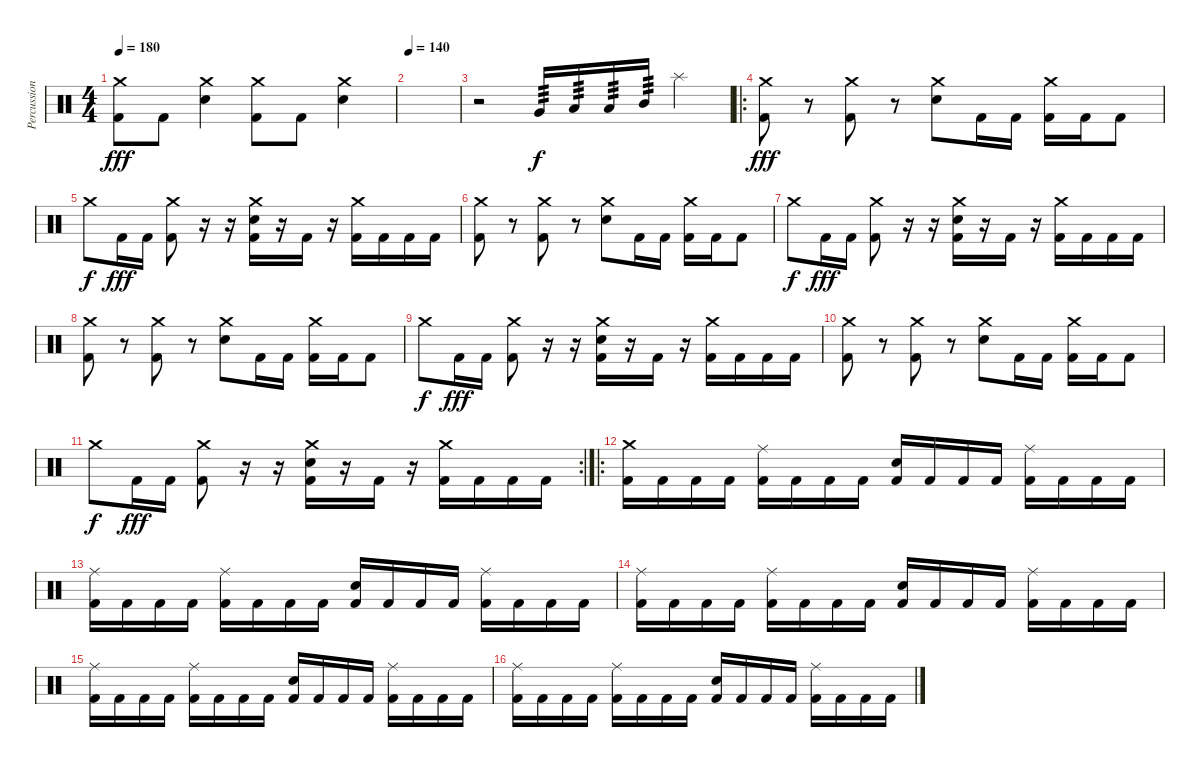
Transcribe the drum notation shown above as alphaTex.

\track ("Percussion" "Percussion") {instrument percussion}
\staff {score}
\articulation defaults
\ts (4 4)
\tempo 180
\clef neutral
\ks c
("Crash medium (hit)" "Kick (hit) 2").8{dy fff} "Kick (hit) 2".8 ("Crash medium (hit)" "Electric Snare (hit)").4 ("Crash medium (hit)" "Kick (hit) 2").8 "Kick (hit) 2".8 ("Crash medium (hit)" "Electric Snare (hit)").4 |
\tempo 140
|
r.2 "Very Low Tom (hit)".16{tp 3 dy f} "Low Floor Tom (hit)".16{tp 3} "Low Tom (hit)".16{tp 3} "Mid Tom (hit)".16{tp 3} "Splash (hit)".4 |
\ro
("Crash medium (hit)" "Kick (hit) 2").8{dy fff} r.8 ("Crash medium (hit)" "Kick (hit) 2").8 r.8 ("Crash medium (hit)" "Electric Snare (hit)").8 "Kick (hit) 2".16 "Kick (hit) 2".16 ("Crash medium (hit)" "Kick (hit) 2").16 "Kick (hit) 2".16 "Kick (hit) 2".8 |
"Crash medium (hit)".8{dy f} "Kick (hit) 2".16{dy fff} "Kick (hit) 2".16 ("Crash medium (hit)" "Kick (hit) 2").8 r.16 r.16 ("Crash medium (hit)" "Electric Snare (hit)" "Kick (hit) 2").16 r.16 "Kick (hit) 2".16 r.16 ("Crash medium (hit)" "Kick (hit) 2").16 "Kick (hit) 2".16 "Kick (hit) 2".16 "Kick (hit) 2".16 |
("Crash medium (hit)" "Kick (hit) 2").8 r.8 ("Crash medium (hit)" "Kick (hit) 2").8 r.8 ("Crash medium (hit)" "Electric Snare (hit)").8 "Kick (hit) 2".16 "Kick (hit) 2".16 ("Crash medium (hit)" "Kick (hit) 2").16 "Kick (hit) 2".16 "Kick (hit) 2".8 |
"Crash medium (hit)".8{dy f} "Kick (hit) 2".16{dy fff} "Kick (hit) 2".16 ("Crash medium (hit)" "Kick (hit) 2").8 r.16 r.16 ("Crash medium (hit)" "Electric Snare (hit)" "Kick (hit) 2").16 r.16 "Kick (hit) 2".16 r.16 ("Crash medium (hit)" "Kick (hit) 2").16 "Kick (hit) 2".16 "Kick (hit) 2".16 "Kick (hit) 2".16 |
("Crash medium (hit)" "Kick (hit) 2").8 r.8 ("Crash medium (hit)" "Kick (hit) 2").8 r.8 ("Crash medium (hit)" "Electric Snare (hit)").8 "Kick (hit) 2".16 "Kick (hit) 2".16 ("Crash medium (hit)" "Kick (hit) 2").16 "Kick (hit) 2".16 "Kick (hit) 2".8 |
"Crash medium (hit)".8{dy f} "Kick (hit) 2".16{dy fff} "Kick (hit) 2".16 ("Crash medium (hit)" "Kick (hit) 2").8 r.16 r.16 ("Crash medium (hit)" "Electric Snare (hit)" "Kick (hit) 2").16 r.16 "Kick (hit) 2".16 r.16 ("Crash medium (hit)" "Kick (hit) 2").16 "Kick (hit) 2".16 "Kick (hit) 2".16 "Kick (hit) 2".16 |
("Crash medium (hit)" "Kick (hit) 2").8 r.8 ("Crash medium (hit)" "Kick (hit) 2").8 r.8 ("Crash medium (hit)" "Electric Snare (hit)").8 "Kick (hit) 2".16 "Kick (hit) 2".16 ("Crash medium (hit)" "Kick (hit) 2").16 "Kick (hit) 2".16 "Kick (hit) 2".8 |
\rc 2 "Crash medium (hit)".8{dy f} "Kick (hit) 2".16{dy fff} "Kick (hit) 2".16
("Crash medium (hit)" "Kick (hit) 2").8 r.16 r.16 ("Crash medium (hit)" "Electric Snare (hit)" "Kick (hit) 2").16 r.16 "Kick (hit) 2".16 r.16 ("Crash medium (hit)" "Kick (hit) 2").16 "Kick (hit) 2".16 "Kick (hit) 2".16 "Kick (hit) 2".16 |
\ro
("Crash medium (hit)" "Kick (hit) 2").16 "Kick (hit) 2".16 "Kick (hit) 2".16 "Kick (hit) 2".16 ("Ride (middle)" "Kick (hit) 2").16 "Kick (hit) 2".16 "Kick (hit) 2".16 "Kick (hit) 2".16 ("Electric Snare (hit)" "Kick (hit) 2").16 "Kick (hit) 2".16 "Kick (hit) 2".16 "Kick (hit) 2".16 ("Ride (middle)" "Kick (hit) 2").16 "Kick (hit) 2".16 "Kick (hit) 2".16 "Kick (hit) 2".16 |
("Ride (middle)" "Kick (hit) 2").16 "Kick (hit) 2".16 "Kick (hit) 2".16 "Kick (hit) 2".16 ("Ride (middle)" "Kick (hit) 2").16 "Kick (hit) 2".16 "Kick (hit) 2".16 "Kick (hit) 2".16 ("Electric Snare (hit)" "Kick (hit) 2").16 "Kick (hit) 2".16 "Kick (hit) 2".16 "Kick (hit) 2".16 ("Ride (middle)" "Kick (hit) 2").16 "Kick (hit) 2".16 "Kick (hit) 2".16 "Kick (hit) 2".16 |
("Ride (middle)" "Kick (hit) 2").16 "Kick (hit) 2".16 "Kick (hit) 2".16 "Kick (hit) 2".16 ("Ride (middle)" "Kick (hit) 2").16 "Kick (hit) 2".16 "Kick (hit) 2".16 "Kick (hit) 2".16 ("Electric Snare (hit)" "Kick (hit) 2").16 "Kick (hit) 2".16 "Kick (hit) 2".16 "Kick (hit) 2".16 ("Ride (middle)" "Kick (hit) 2").16 "Kick (hit) 2".16 "Kick (hit) 2".16 "Kick (hit) 2".16 |
("Ride (middle)" "Kick (hit) 2").16 "Kick (hit) 2".16 "Kick (hit) 2".16 "Kick (hit) 2".16 ("Ride (middle)" "Kick (hit) 2").16 "Kick (hit) 2".16 "Kick (hit) 2".16 "Kick (hit) 2".16 ("Electric Snare (hit)" "Kick (hit) 2").16 "Kick (hit) 2".16 "Kick (hit) 2".16 "Kick (hit) 2".16 ("Ride (middle)" "Kick (hit) 2").16 "Kick (hit) 2".16 "Kick (hit) 2".16 "Kick (hit) 2".16 |
("Ride (middle)" "Kick (hit) 2").16 "Kick (hit) 2".16 "Kick (hit) 2".16 "Kick (hit) 2".16 ("Ride (middle)" "Kick (hit) 2").16 "Kick (hit) 2".16 "Kick (hit) 2".16 "Kick (hit) 2".16 ("Electric Snare (hit)" "Kick (hit) 2").16 "Kick (hit) 2".16 "Kick (hit) 2".16 "Kick (hit) 2".16 ("Ride (middle)" "Kick (hit) 2").16 "Kick (hit) 2".16 "Kick (hit) 2".16 "Kick (hit) 2".16
